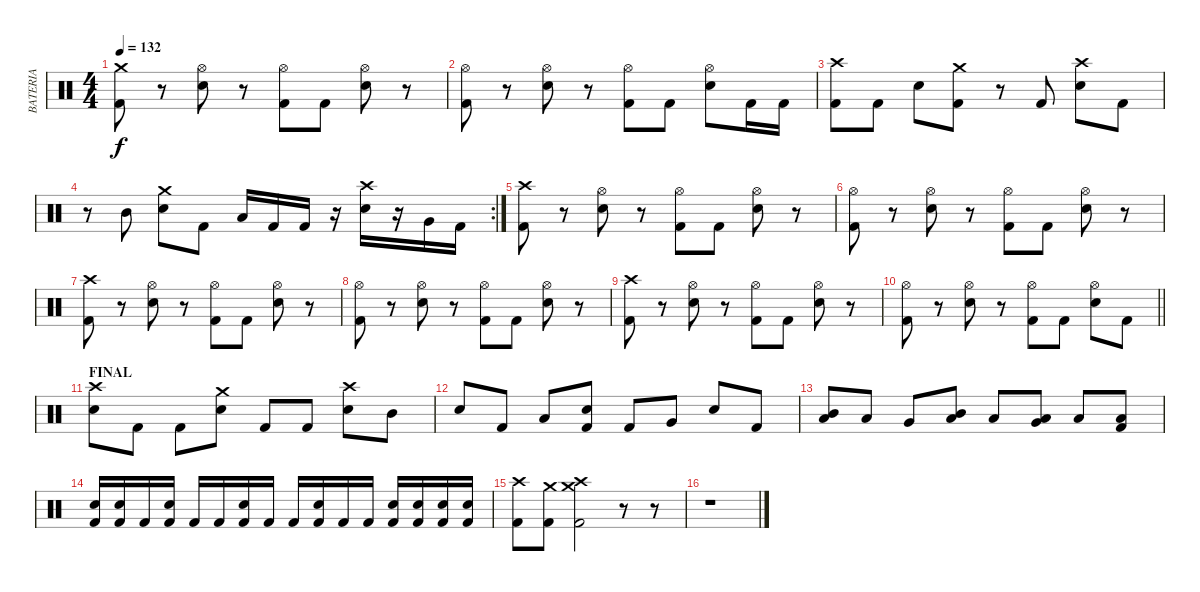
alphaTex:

\track ("BATERIA" "BATERIA") {instrument percussion}
\staff {score}
\articulation defaults
\ts (4 4)
\tempo 132
\clef neutral
\ks c
("Kick (hit) 2" "Crash medium (hit)").8{dy f} r.8 ("Hi-Hat (open)" "Electric Snare (hit)").8 r.8 ("Kick (hit) 2" "Hi-Hat (open)").8 "Kick (hit) 2".8 ("Hi-Hat (open)" "Electric Snare (hit)").8 r.8 |
("Kick (hit) 2" "Hi-Hat (open)").8 r.8 ("Hi-Hat (open)" "Electric Snare (hit)").8 r.8 ("Kick (hit) 2" "Hi-Hat (open)").8 "Kick (hit) 2".8 ("Hi-Hat (open)" "Electric Snare (hit)").8 "Kick (hit) 2".16 "Kick (hit) 2".16 |
("Kick (hit) 2" "Crash high (hit)").8 "Kick (hit) 2".8 "Electric Snare (hit)".8 ("Kick (hit) 2" "Crash medium (hit)").8 r.8 "Kick (hit) 2".8 ("Crash high (hit)" "Electric Snare (hit)").8 "Kick (hit) 2".8 |
\rc 2
r.8 "Mid Tom (hit)".8 ("Crash medium (hit)" "Electric Snare (hit)").8 "Kick (hit) 2".8 "Low Tom (hit)".16 "Kick (hit) 2".16 "Kick (hit) 2".16 r.16 ("Crash high (hit)" "Electric Snare (hit)").16 r.16 "Very Low Tom (hit)".16 "Kick (hit) 2".16 |
("Kick (hit) 2" "Crash high (hit)").8 r.8 ("Hi-Hat (open)" "Electric Snare (hit)").8 r.8 ("Kick (hit) 2" "Hi-Hat (open)").8 "Kick (hit) 2".8 ("Hi-Hat (open)" "Electric Snare (hit)").8 r.8 |
("Kick (hit) 2" "Hi-Hat (open)").8 r.8 ("Hi-Hat (open)" "Electric Snare (hit)").8 r.8 ("Kick (hit) 2" "Hi-Hat (open)").8 "Kick (hit) 2".8 ("Hi-Hat (open)" "Electric Snare (hit)").8 r.8 |
("Kick (hit) 2" "Crash high (hit)").8 r.8 ("Hi-Hat (open)" "Electric Snare (hit)").8 r.8 ("Kick (hit) 2" "Hi-Hat (open)").8 "Kick (hit) 2".8 ("Hi-Hat (open)" "Electric Snare (hit)").8 r.8 |
("Kick (hit) 2" "Hi-Hat (open)").8 r.8 ("Hi-Hat (open)" "Electric Snare (hit)").8 r.8 ("Kick (hit) 2" "Hi-Hat (open)").8 "Kick (hit) 2".8 ("Hi-Hat (open)" "Electric Snare (hit)").8 r.8 |
("Kick (hit) 2" "Crash high (hit)").8 r.8 ("Hi-Hat (open)" "Electric Snare (hit)").8 r.8 ("Kick (hit) 2" "Hi-Hat (open)").8 "Kick (hit) 2".8 ("Hi-Hat (open)" "Electric Snare (hit)").8 r.8 |
\barLineRight lightlight
("Kick (hit) 2" "Hi-Hat (open)").8 r.8 ("Hi-Hat (open)" "Electric Snare (hit)").8 r.8 ("Kick (hit) 2" "Hi-Hat (open)").8 "Kick (hit) 2".8 ("Hi-Hat (open)" "Electric Snare (hit)").8 "Kick (hit) 2".8 |
\section ("" "FINAL")
("Crash high (hit)" "Electric Snare (hit)").8 "Kick (hit) 2".8 "Kick (hit) 2".8 ("Crash medium (hit)" "Electric Snare (hit)").8 "Kick (hit) 2".8 "Kick (hit) 2".8 ("Crash high (hit)" "Electric Snare (hit)").8 "Mid Tom (hit)".8 |
"Electric Snare (hit)".8 "Kick (hit) 2".8 "Low Tom (hit)".8 ("Kick (hit) 2" "Electric Snare (hit)").8 "Kick (hit) 2".8 "Very Low Tom (hit)".8 "Electric Snare (hit)".8 "Kick (hit) 2".8 |
("Low Tom (hit)" "Mid Tom (hit)").8 "Low Tom (hit)".8 "Very Low Tom (hit)".8 ("Low Floor Tom (hit)" "Mid Tom (hit)").8 "Low Tom (hit)".8 ("Very Low Tom (hit)" "Low Floor Tom (hit)").8 "Low Tom (hit)".8 ("Kick (hit) 2" "Low Floor Tom (hit)").8 |
("Kick (hit) 2" "Electric Snare (hit)").16 ("Kick (hit) 2" "Electric Snare (hit)").16 "Kick (hit) 2".16 ("Kick (hit) 2" "Electric Snare (hit)").16 "Kick (hit) 2".16 "Kick (hit) 2".16 ("Kick (hit) 2" "Electric Snare (hit)").16 "Kick (hit) 2".16 "Kick (hit) 2".16 ("Kick (hit) 2" "Electric Snare (hit)").16 "Kick (hit) 2".16 "Kick (hit) 2".16 ("Kick (hit) 2" "Electric Snare (hit)").16 ("Kick (hit) 2" "Electric Snare (hit)").16 ("Kick (hit) 2" "Electric Snare (hit)").16 ("Kick (hit) 2" "Electric Snare (hit)").16 |
("Kick (hit) 2" "Crash high (hit)").8 ("Kick (hit) 2" "Crash medium (hit)").8 ("Kick (hit) 2" "Crash high (hit)" "Crash medium (hit)").2 r.8 r.8 |
r.1
